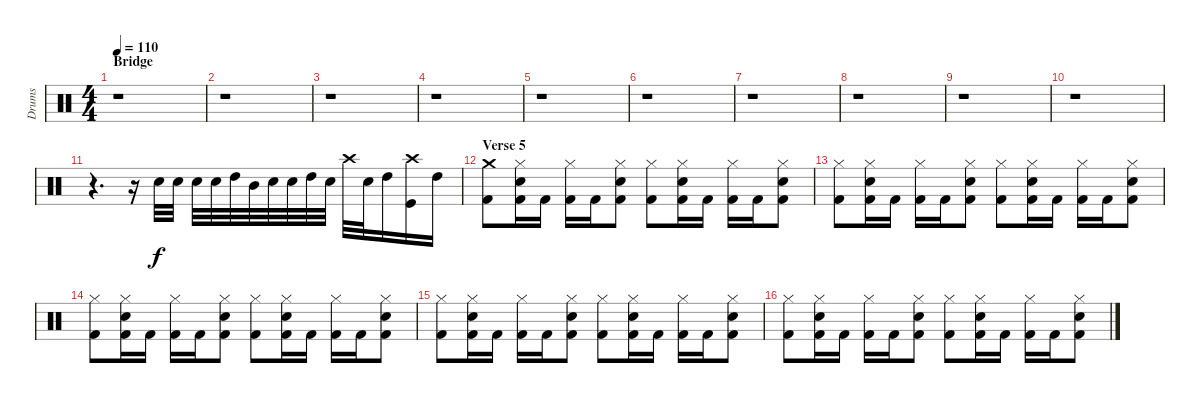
\track ("Drums" "Drums") {instrument percussion}
\staff {score}
\articulation defaults
\ts (4 4)
\section ("" "Bridge")
\tempo 110
\clef neutral
\ks c
r.1{dy f} |
r.1 |
r.1 |
r.1 |
r.1 |
r.1 |
r.1 |
r.1 |
r.1 |
r.1 |
r.4{d} r.16 "Electric Snare (hit)".32 "Electric Snare (hit)".32 "Electric Snare (hit)".32 "Electric Snare (hit)".32 "High Tom (hit)".32 "Mid Tom (hit)".32 "Electric Snare (hit)".32 "Electric Snare (hit)".32 "High Tom (hit)".32 "Electric Snare (hit)".32 "Crash high (hit)".32 "Electric Snare (hit)".32 "High Tom (hit)".16 ("Crash high (hit)" "Kick (hit)").16 "High Tom (hit)".16 |
\section ("" "Verse 5")
("Crash medium (hit)" "Kick (hit) 2").8 ("Hi-Hat (closed)" "Electric Snare (hit)" "Kick (hit) 2").16 "Kick (hit) 2".16 ("Hi-Hat (closed)" "Kick (hit) 2").16 "Kick (hit) 2".16 ("Hi-Hat (closed)" "Electric Snare (hit)" "Kick (hit) 2").8 ("Hi-Hat (closed)" "Kick (hit) 2").8 ("Hi-Hat (closed)" "Electric Snare (hit)" "Kick (hit) 2").16 "Kick (hit) 2".16 ("Hi-Hat (closed)" "Kick (hit) 2").16 "Kick (hit) 2".16 ("Hi-Hat (closed)" "Electric Snare (hit)" "Kick (hit) 2").8 |
("Hi-Hat (closed)" "Kick (hit) 2").8 ("Hi-Hat (closed)" "Electric Snare (hit)" "Kick (hit) 2").16 "Kick (hit) 2".16 ("Hi-Hat (closed)" "Kick (hit) 2").16 "Kick (hit) 2".16 ("Hi-Hat (closed)" "Electric Snare (hit)" "Kick (hit) 2").8 ("Hi-Hat (closed)" "Kick (hit) 2").8 ("Hi-Hat (closed)" "Electric Snare (hit)" "Kick (hit) 2").16 "Kick (hit) 2".16 ("Hi-Hat (closed)" "Kick (hit) 2").16 "Kick (hit) 2".16 ("Hi-Hat (closed)" "Electric Snare (hit)" "Kick (hit) 2").8 |
("Hi-Hat (closed)" "Kick (hit) 2").8 ("Hi-Hat (closed)" "Electric Snare (hit)" "Kick (hit) 2").16 "Kick (hit) 2".16 ("Hi-Hat (closed)" "Kick (hit) 2").16 "Kick (hit) 2".16 ("Hi-Hat (closed)" "Electric Snare (hit)" "Kick (hit) 2").8 ("Hi-Hat (closed)" "Kick (hit) 2").8 ("Hi-Hat (closed)" "Electric Snare (hit)" "Kick (hit) 2").16 "Kick (hit) 2".16 ("Hi-Hat (closed)" "Kick (hit) 2").16 "Kick (hit) 2".16 ("Hi-Hat (closed)" "Electric Snare (hit)" "Kick (hit) 2").8 |
("Hi-Hat (closed)" "Kick (hit) 2").8 ("Hi-Hat (closed)" "Electric Snare (hit)" "Kick (hit) 2").16 "Kick (hit) 2".16 ("Hi-Hat (closed)" "Kick (hit) 2").16 "Kick (hit) 2".16 ("Hi-Hat (closed)" "Electric Snare (hit)" "Kick (hit) 2").8 ("Hi-Hat (closed)" "Kick (hit) 2").8 ("Hi-Hat (closed)" "Electric Snare (hit)" "Kick (hit) 2").16 "Kick (hit) 2".16 ("Hi-Hat (closed)" "Kick (hit) 2").16 "Kick (hit) 2".16 ("Hi-Hat (closed)" "Electric Snare (hit)" "Kick (hit) 2").8 |
("Hi-Hat (closed)" "Kick (hit) 2").8 ("Hi-Hat (closed)" "Electric Snare (hit)" "Kick (hit) 2").16 "Kick (hit) 2".16 ("Hi-Hat (closed)" "Kick (hit) 2").16 "Kick (hit) 2".16 ("Hi-Hat (closed)" "Electric Snare (hit)" "Kick (hit) 2").8 ("Hi-Hat (closed)" "Kick (hit) 2").8 ("Hi-Hat (closed)" "Electric Snare (hit)" "Kick (hit) 2").16 "Kick (hit) 2".16 ("Hi-Hat (closed)" "Kick (hit) 2").16 "Kick (hit) 2".16 ("Hi-Hat (closed)" "Electric Snare (hit)" "Kick (hit) 2").8
